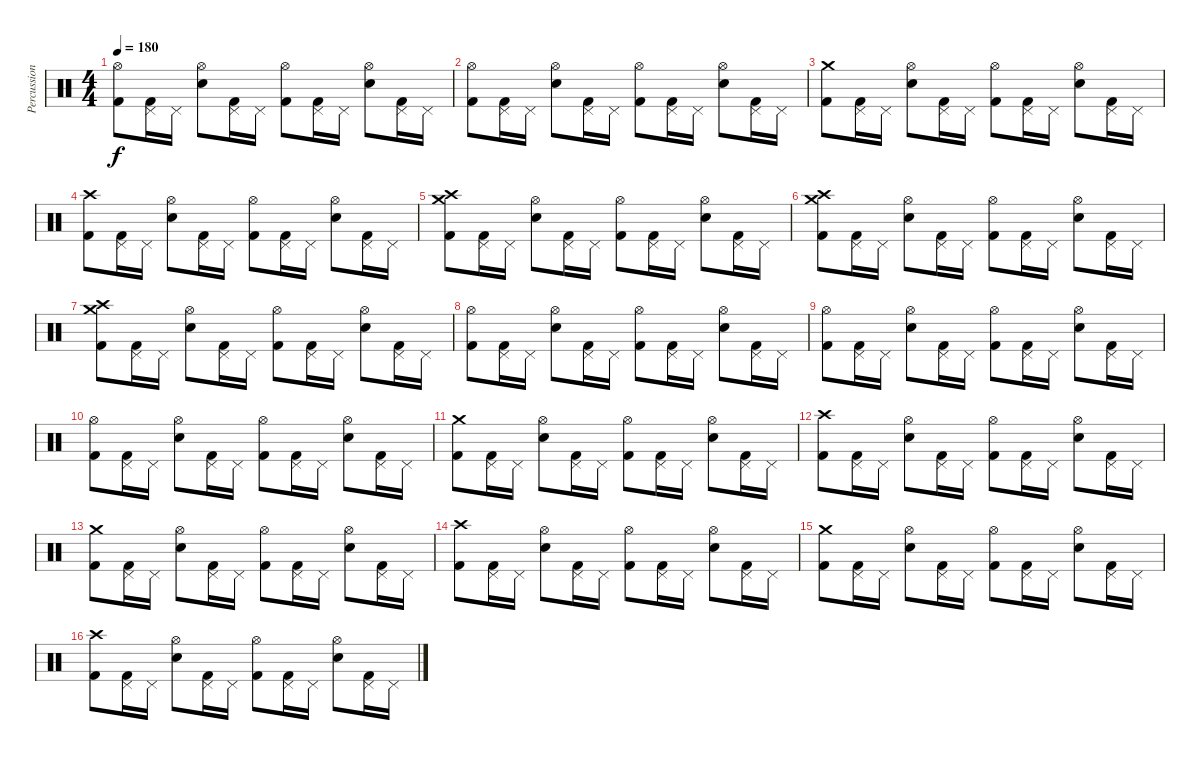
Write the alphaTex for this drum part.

\track ("Percussion" "Percussion") {instrument percussion}
\staff {score}
\articulation defaults
\ts (4 4)
\tempo 180
\clef neutral
\ks c
("Hi-Hat (open)" "Kick (hit) 2").8{dy f} ("Pedal Hi-Hat (hit)" "Kick (hit) 2").16 "Pedal Hi-Hat (hit)".16 ("Hi-Hat (open)" "Electric Snare (hit)").8 ("Pedal Hi-Hat (hit)" "Kick (hit) 2").16 "Pedal Hi-Hat (hit)".16 ("Hi-Hat (open)" "Kick (hit) 2").8 ("Pedal Hi-Hat (hit)" "Kick (hit) 2").16 "Pedal Hi-Hat (hit)".16 ("Hi-Hat (open)" "Electric Snare (hit)").8 ("Pedal Hi-Hat (hit)" "Kick (hit) 2").16 "Pedal Hi-Hat (hit)".16 |
("Hi-Hat (open)" "Kick (hit) 2").8 ("Pedal Hi-Hat (hit)" "Kick (hit) 2").16 "Pedal Hi-Hat (hit)".16 ("Hi-Hat (open)" "Electric Snare (hit)").8 ("Pedal Hi-Hat (hit)" "Kick (hit) 2").16 "Pedal Hi-Hat (hit)".16 ("Hi-Hat (open)" "Kick (hit) 2").8 ("Pedal Hi-Hat (hit)" "Kick (hit) 2").16 "Pedal Hi-Hat (hit)".16 ("Hi-Hat (open)" "Electric Snare (hit)").8 ("Pedal Hi-Hat (hit)" "Kick (hit) 2").16 "Pedal Hi-Hat (hit)".16 |
("Crash medium (hit)" "Kick (hit) 2").8 ("Pedal Hi-Hat (hit)" "Kick (hit) 2").16 "Pedal Hi-Hat (hit)".16 ("Hi-Hat (open)" "Electric Snare (hit)").8 ("Pedal Hi-Hat (hit)" "Kick (hit) 2").16 "Pedal Hi-Hat (hit)".16 ("Hi-Hat (open)" "Kick (hit) 2").8 ("Pedal Hi-Hat (hit)" "Kick (hit) 2").16 "Pedal Hi-Hat (hit)".16 ("Hi-Hat (open)" "Electric Snare (hit)").8 ("Pedal Hi-Hat (hit)" "Kick (hit) 2").16 "Pedal Hi-Hat (hit)".16 |
("Crash high (hit)" "Kick (hit) 2").8 ("Pedal Hi-Hat (hit)" "Kick (hit) 2").16 "Pedal Hi-Hat (hit)".16 ("Hi-Hat (open)" "Electric Snare (hit)").8 ("Pedal Hi-Hat (hit)" "Kick (hit) 2").16 "Pedal Hi-Hat (hit)".16 ("Hi-Hat (open)" "Kick (hit) 2").8 ("Pedal Hi-Hat (hit)" "Kick (hit) 2").16 "Pedal Hi-Hat (hit)".16 ("Hi-Hat (open)" "Electric Snare (hit)").8 ("Pedal Hi-Hat (hit)" "Kick (hit) 2").16 "Pedal Hi-Hat (hit)".16 |
("Crash medium (hit)" "Crash high (hit)" "Kick (hit) 2").8 ("Pedal Hi-Hat (hit)" "Kick (hit) 2").16 "Pedal Hi-Hat (hit)".16 ("Hi-Hat (open)" "Electric Snare (hit)").8 ("Pedal Hi-Hat (hit)" "Kick (hit) 2").16 "Pedal Hi-Hat (hit)".16 ("Hi-Hat (open)" "Kick (hit) 2").8 ("Pedal Hi-Hat (hit)" "Kick (hit) 2").16 "Pedal Hi-Hat (hit)".16 ("Hi-Hat (open)" "Electric Snare (hit)").8 ("Pedal Hi-Hat (hit)" "Kick (hit) 2").16 "Pedal Hi-Hat (hit)".16 |
("Crash medium (hit)" "Crash high (hit)" "Kick (hit) 2").8 ("Pedal Hi-Hat (hit)" "Kick (hit) 2").16 "Pedal Hi-Hat (hit)".16 ("Hi-Hat (open)" "Electric Snare (hit)").8 ("Pedal Hi-Hat (hit)" "Kick (hit) 2").16 "Pedal Hi-Hat (hit)".16 ("Hi-Hat (open)" "Kick (hit) 2").8 ("Pedal Hi-Hat (hit)" "Kick (hit) 2").16 "Pedal Hi-Hat (hit)".16 ("Hi-Hat (open)" "Electric Snare (hit)").8 ("Pedal Hi-Hat (hit)" "Kick (hit) 2").16 "Pedal Hi-Hat (hit)".16 |
("Crash medium (hit)" "Crash high (hit)" "Kick (hit) 2").8 ("Pedal Hi-Hat (hit)" "Kick (hit) 2").16 "Pedal Hi-Hat (hit)".16 ("Hi-Hat (open)" "Electric Snare (hit)").8 ("Pedal Hi-Hat (hit)" "Kick (hit) 2").16 "Pedal Hi-Hat (hit)".16 ("Hi-Hat (open)" "Kick (hit) 2").8 ("Pedal Hi-Hat (hit)" "Kick (hit) 2").16 "Pedal Hi-Hat (hit)".16 ("Hi-Hat (open)" "Electric Snare (hit)").8 ("Pedal Hi-Hat (hit)" "Kick (hit) 2").16 "Pedal Hi-Hat (hit)".16 |
("Hi-Hat (open)" "Kick (hit) 2").8 ("Pedal Hi-Hat (hit)" "Kick (hit) 2").16 "Pedal Hi-Hat (hit)".16 ("Hi-Hat (open)" "Electric Snare (hit)").8 ("Pedal Hi-Hat (hit)" "Kick (hit) 2").16 "Pedal Hi-Hat (hit)".16 ("Hi-Hat (open)" "Kick (hit) 2").8 ("Pedal Hi-Hat (hit)" "Kick (hit) 2").16 "Pedal Hi-Hat (hit)".16 ("Hi-Hat (open)" "Electric Snare (hit)").8 ("Pedal Hi-Hat (hit)" "Kick (hit) 2").16 "Pedal Hi-Hat (hit)".16 |
("Hi-Hat (open)" "Kick (hit) 2").8 ("Pedal Hi-Hat (hit)" "Kick (hit) 2").16 "Pedal Hi-Hat (hit)".16 ("Hi-Hat (open)" "Electric Snare (hit)").8 ("Pedal Hi-Hat (hit)" "Kick (hit) 2").16 "Pedal Hi-Hat (hit)".16 ("Hi-Hat (open)" "Kick (hit) 2").8 ("Pedal Hi-Hat (hit)" "Kick (hit) 2").16 "Pedal Hi-Hat (hit)".16 ("Hi-Hat (open)" "Electric Snare (hit)").8 ("Pedal Hi-Hat (hit)" "Kick (hit) 2").16 "Pedal Hi-Hat (hit)".16 |
("Hi-Hat (open)" "Kick (hit) 2").8 ("Pedal Hi-Hat (hit)" "Kick (hit) 2").16 "Pedal Hi-Hat (hit)".16 ("Hi-Hat (open)" "Electric Snare (hit)").8 ("Pedal Hi-Hat (hit)" "Kick (hit) 2").16 "Pedal Hi-Hat (hit)".16 ("Hi-Hat (open)" "Kick (hit) 2").8 ("Pedal Hi-Hat (hit)" "Kick (hit) 2").16 "Pedal Hi-Hat (hit)".16 ("Hi-Hat (open)" "Electric Snare (hit)").8 ("Pedal Hi-Hat (hit)" "Kick (hit) 2").16 "Pedal Hi-Hat (hit)".16 |
("Crash medium (hit)" "Kick (hit) 2").8 ("Pedal Hi-Hat (hit)" "Kick (hit) 2").16 "Pedal Hi-Hat (hit)".16 ("Hi-Hat (open)" "Electric Snare (hit)").8 ("Pedal Hi-Hat (hit)" "Kick (hit) 2").16 "Pedal Hi-Hat (hit)".16 ("Hi-Hat (open)" "Kick (hit) 2").8 ("Pedal Hi-Hat (hit)" "Kick (hit) 2").16 "Pedal Hi-Hat (hit)".16 ("Hi-Hat (open)" "Electric Snare (hit)").8 ("Pedal Hi-Hat (hit)" "Kick (hit) 2").16 "Pedal Hi-Hat (hit)".16 |
("Crash high (hit)" "Kick (hit) 2").8 ("Pedal Hi-Hat (hit)" "Kick (hit) 2").16 "Pedal Hi-Hat (hit)".16 ("Hi-Hat (open)" "Electric Snare (hit)").8 ("Pedal Hi-Hat (hit)" "Kick (hit) 2").16 "Pedal Hi-Hat (hit)".16 ("Hi-Hat (open)" "Kick (hit) 2").8 ("Pedal Hi-Hat (hit)" "Kick (hit) 2").16 "Pedal Hi-Hat (hit)".16 ("Hi-Hat (open)" "Electric Snare (hit)").8 ("Pedal Hi-Hat (hit)" "Kick (hit) 2").16 "Pedal Hi-Hat (hit)".16 |
("Crash medium (hit)" "Kick (hit) 2").8 ("Pedal Hi-Hat (hit)" "Kick (hit) 2").16 "Pedal Hi-Hat (hit)".16 ("Hi-Hat (open)" "Electric Snare (hit)").8 ("Pedal Hi-Hat (hit)" "Kick (hit) 2").16 "Pedal Hi-Hat (hit)".16 ("Hi-Hat (open)" "Kick (hit) 2").8 ("Pedal Hi-Hat (hit)" "Kick (hit) 2").16 "Pedal Hi-Hat (hit)".16 ("Hi-Hat (open)" "Electric Snare (hit)").8 ("Pedal Hi-Hat (hit)" "Kick (hit) 2").16 "Pedal Hi-Hat (hit)".16 |
("Crash high (hit)" "Kick (hit) 2").8 ("Pedal Hi-Hat (hit)" "Kick (hit) 2").16 "Pedal Hi-Hat (hit)".16 ("Hi-Hat (open)" "Electric Snare (hit)").8 ("Pedal Hi-Hat (hit)" "Kick (hit) 2").16 "Pedal Hi-Hat (hit)".16 ("Hi-Hat (open)" "Kick (hit) 2").8 ("Pedal Hi-Hat (hit)" "Kick (hit) 2").16 "Pedal Hi-Hat (hit)".16 ("Hi-Hat (open)" "Electric Snare (hit)").8 ("Pedal Hi-Hat (hit)" "Kick (hit) 2").16 "Pedal Hi-Hat (hit)".16 |
("Crash medium (hit)" "Kick (hit) 2").8 ("Pedal Hi-Hat (hit)" "Kick (hit) 2").16 "Pedal Hi-Hat (hit)".16 ("Hi-Hat (open)" "Electric Snare (hit)").8 ("Pedal Hi-Hat (hit)" "Kick (hit) 2").16 "Pedal Hi-Hat (hit)".16 ("Hi-Hat (open)" "Kick (hit) 2").8 ("Pedal Hi-Hat (hit)" "Kick (hit) 2").16 "Pedal Hi-Hat (hit)".16 ("Hi-Hat (open)" "Electric Snare (hit)").8 ("Pedal Hi-Hat (hit)" "Kick (hit) 2").16 "Pedal Hi-Hat (hit)".16 |
("Crash high (hit)" "Kick (hit) 2").8 ("Pedal Hi-Hat (hit)" "Kick (hit) 2").16 "Pedal Hi-Hat (hit)".16 ("Hi-Hat (open)" "Electric Snare (hit)").8 ("Pedal Hi-Hat (hit)" "Kick (hit) 2").16 "Pedal Hi-Hat (hit)".16 ("Hi-Hat (open)" "Kick (hit) 2").8 ("Pedal Hi-Hat (hit)" "Kick (hit) 2").16 "Pedal Hi-Hat (hit)".16 ("Hi-Hat (open)" "Electric Snare (hit)").8 ("Pedal Hi-Hat (hit)" "Kick (hit) 2").16 "Pedal Hi-Hat (hit)".16
